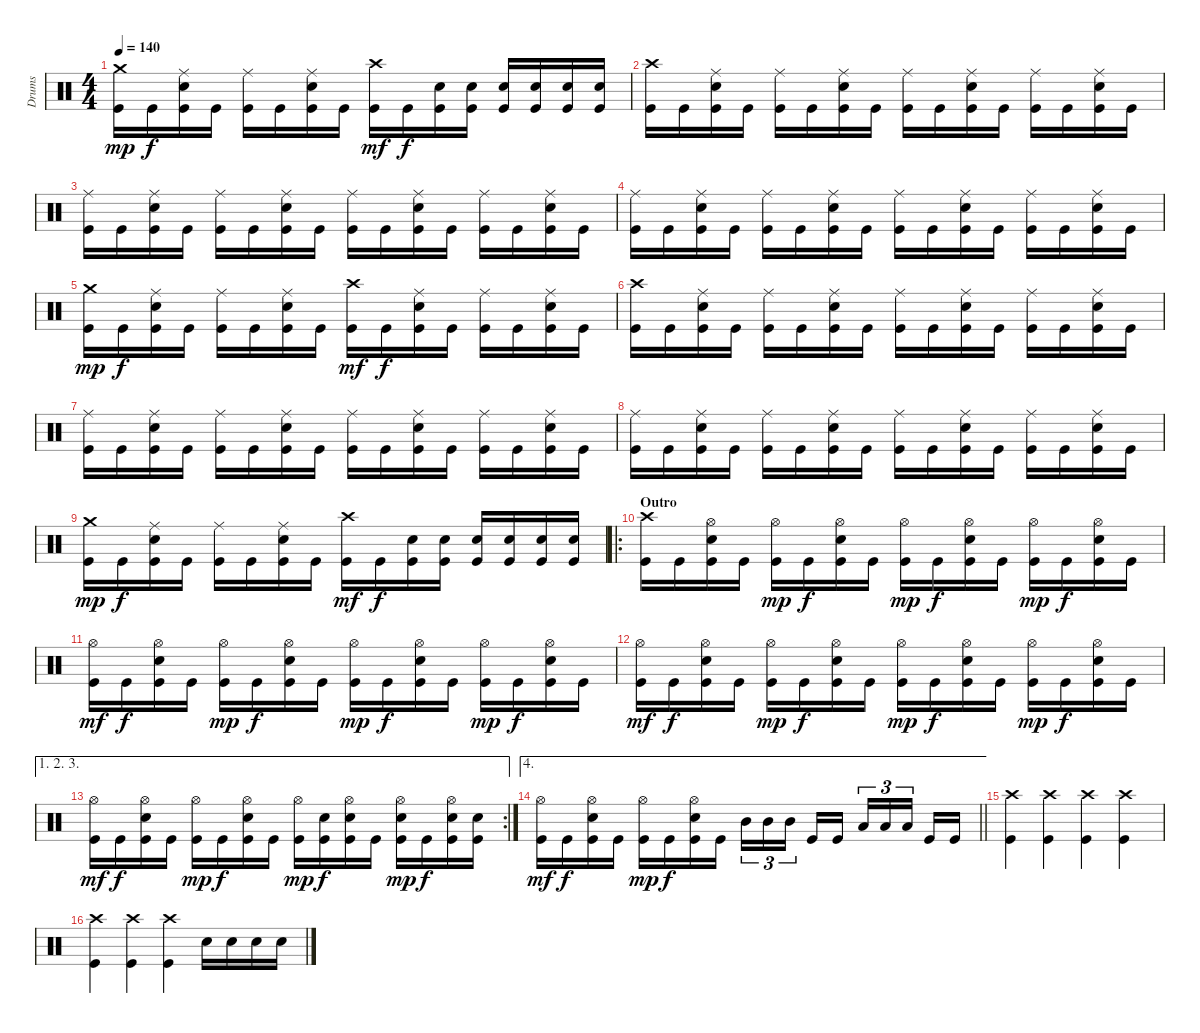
\track ("Drums" "Drums") {instrument percussion}
\staff {score}
\articulation defaults
\ts (4 4)
\tempo 140
\clef neutral
\ks c
("Crash medium (hit)" "Kick (hit)").16{dy mp} "Kick (hit)".16{dy f} ("Ride (middle)" "Electric Snare (hit)" "Kick (hit)").16 "Kick (hit)".16 ("Ride (middle)" "Kick (hit)").16 "Kick (hit)".16 ("Ride (middle)" "Electric Snare (hit)" "Kick (hit)").16 "Kick (hit)".16 ("Crash high (hit)" "Kick (hit)").16{dy mf} "Kick (hit)".16{dy f} ("Electric Snare (hit)" "Kick (hit)").16 ("Electric Snare (hit)" "Kick (hit)").16 ("Electric Snare (hit)" "Kick (hit)").16 ("Electric Snare (hit)" "Kick (hit)").16 ("Electric Snare (hit)" "Kick (hit)").16 ("Electric Snare (hit)" "Kick (hit)").16 |
("Crash high (hit)" "Kick (hit)").16 "Kick (hit)".16 ("Ride (middle)" "Electric Snare (hit)" "Kick (hit)").16 "Kick (hit)".16 ("Ride (middle)" "Kick (hit)").16 "Kick (hit)".16 ("Ride (middle)" "Electric Snare (hit)" "Kick (hit)").16 "Kick (hit)".16 ("Ride (middle)" "Kick (hit)").16 "Kick (hit)".16 ("Ride (middle)" "Electric Snare (hit)" "Kick (hit)").16 "Kick (hit)".16 ("Ride (middle)" "Kick (hit)").16 "Kick (hit)".16 ("Ride (middle)" "Electric Snare (hit)" "Kick (hit)").16 "Kick (hit)".16 |
("Ride (middle)" "Kick (hit)").16 "Kick (hit)".16 ("Ride (middle)" "Electric Snare (hit)" "Kick (hit)").16 "Kick (hit)".16 ("Ride (middle)" "Kick (hit)").16 "Kick (hit)".16 ("Ride (middle)" "Electric Snare (hit)" "Kick (hit)").16 "Kick (hit)".16 ("Ride (middle)" "Kick (hit)").16 "Kick (hit)".16 ("Ride (middle)" "Electric Snare (hit)" "Kick (hit)").16 "Kick (hit)".16 ("Ride (middle)" "Kick (hit)").16 "Kick (hit)".16 ("Ride (middle)" "Electric Snare (hit)" "Kick (hit)").16 "Kick (hit)".16 |
("Ride (middle)" "Kick (hit)").16 "Kick (hit)".16 ("Ride (middle)" "Electric Snare (hit)" "Kick (hit)").16 "Kick (hit)".16 ("Ride (middle)" "Kick (hit)").16 "Kick (hit)".16 ("Ride (middle)" "Electric Snare (hit)" "Kick (hit)").16 "Kick (hit)".16 ("Ride (middle)" "Kick (hit)").16 "Kick (hit)".16 ("Ride (middle)" "Electric Snare (hit)" "Kick (hit)").16 "Kick (hit)".16 ("Ride (middle)" "Kick (hit)").16 "Kick (hit)".16 ("Ride (middle)" "Electric Snare (hit)" "Kick (hit)").16 "Kick (hit)".16 |
("Crash medium (hit)" "Kick (hit)").16{dy mp} "Kick (hit)".16{dy f} ("Ride (middle)" "Electric Snare (hit)" "Kick (hit)").16 "Kick (hit)".16 ("Ride (middle)" "Kick (hit)").16 "Kick (hit)".16 ("Ride (middle)" "Electric Snare (hit)" "Kick (hit)").16 "Kick (hit)".16 ("Crash high (hit)" "Kick (hit)").16{dy mf} "Kick (hit)".16{dy f} ("Ride (middle)" "Electric Snare (hit)" "Kick (hit)").16 "Kick (hit)".16 ("Ride (middle)" "Kick (hit)").16 "Kick (hit)".16 ("Ride (middle)" "Electric Snare (hit)" "Kick (hit)").16 "Kick (hit)".16 |
("Crash high (hit)" "Kick (hit)").16 "Kick (hit)".16 ("Ride (middle)" "Electric Snare (hit)" "Kick (hit)").16 "Kick (hit)".16 ("Ride (middle)" "Kick (hit)").16 "Kick (hit)".16 ("Ride (middle)" "Electric Snare (hit)" "Kick (hit)").16 "Kick (hit)".16 ("Ride (middle)" "Kick (hit)").16 "Kick (hit)".16 ("Ride (middle)" "Electric Snare (hit)" "Kick (hit)").16 "Kick (hit)".16 ("Ride (middle)" "Kick (hit)").16 "Kick (hit)".16 ("Ride (middle)" "Electric Snare (hit)" "Kick (hit)").16 "Kick (hit)".16 |
("Ride (middle)" "Kick (hit)").16 "Kick (hit)".16 ("Ride (middle)" "Electric Snare (hit)" "Kick (hit)").16 "Kick (hit)".16 ("Ride (middle)" "Kick (hit)").16 "Kick (hit)".16 ("Ride (middle)" "Electric Snare (hit)" "Kick (hit)").16 "Kick (hit)".16 ("Ride (middle)" "Kick (hit)").16 "Kick (hit)".16 ("Ride (middle)" "Electric Snare (hit)" "Kick (hit)").16 "Kick (hit)".16 ("Ride (middle)" "Kick (hit)").16 "Kick (hit)".16 ("Ride (middle)" "Electric Snare (hit)" "Kick (hit)").16 "Kick (hit)".16 |
("Ride (middle)" "Kick (hit)").16 "Kick (hit)".16 ("Ride (middle)" "Electric Snare (hit)" "Kick (hit)").16 "Kick (hit)".16 ("Ride (middle)" "Kick (hit)").16 "Kick (hit)".16 ("Ride (middle)" "Electric Snare (hit)" "Kick (hit)").16 "Kick (hit)".16 ("Ride (middle)" "Kick (hit)").16 "Kick (hit)".16 ("Ride (middle)" "Electric Snare (hit)" "Kick (hit)").16 "Kick (hit)".16 ("Ride (middle)" "Kick (hit)").16 "Kick (hit)".16 ("Ride (middle)" "Electric Snare (hit)" "Kick (hit)").16 "Kick (hit)".16 |
("Crash medium (hit)" "Kick (hit)").16{dy mp} "Kick (hit)".16{dy f} ("Ride (middle)" "Electric Snare (hit)" "Kick (hit)").16 "Kick (hit)".16 ("Ride (middle)" "Kick (hit)").16 "Kick (hit)".16 ("Ride (middle)" "Electric Snare (hit)" "Kick (hit)").16 "Kick (hit)".16 ("Crash high (hit)" "Kick (hit)").16{dy mf} "Kick (hit)".16{dy f} ("Electric Snare (hit)" "Kick (hit)").16 ("Electric Snare (hit)" "Kick (hit)").16 ("Electric Snare (hit)" "Kick (hit)").16 ("Electric Snare (hit)" "Kick (hit)").16 ("Electric Snare (hit)" "Kick (hit)").16 ("Electric Snare (hit)" "Kick (hit)").16 |
\ro
\section ("" "Outro")
("Crash high (hit)" "Kick (hit)").16 "Kick (hit)".16 ("Hi-Hat (open)" "Electric Snare (hit)" "Kick (hit)").16 "Kick (hit)".16 ("Hi-Hat (open)" "Kick (hit)").16{dy mp} "Kick (hit)".16{dy f} ("Hi-Hat (open)" "Electric Snare (hit)" "Kick (hit)").16 "Kick (hit)".16 ("Hi-Hat (open)" "Kick (hit)").16{dy mp} "Kick (hit)".16{dy f} ("Hi-Hat (open)" "Electric Snare (hit)" "Kick (hit)").16 "Kick (hit)".16 ("Hi-Hat (open)" "Kick (hit)").16{dy mp} "Kick (hit)".16{dy f} ("Hi-Hat (open)" "Electric Snare (hit)" "Kick (hit)").16 "Kick (hit)".16 |
("Hi-Hat (open)" "Kick (hit)").16{dy mf} "Kick (hit)".16{dy f} ("Hi-Hat (open)" "Electric Snare (hit)" "Kick (hit)").16 "Kick (hit)".16 ("Hi-Hat (open)" "Kick (hit)").16{dy mp} "Kick (hit)".16{dy f} ("Hi-Hat (open)" "Electric Snare (hit)" "Kick (hit)").16 "Kick (hit)".16 ("Hi-Hat (open)" "Kick (hit)").16{dy mp} "Kick (hit)".16{dy f} ("Hi-Hat (open)" "Electric Snare (hit)" "Kick (hit)").16 "Kick (hit)".16 ("Hi-Hat (open)" "Kick (hit)").16{dy mp} "Kick (hit)".16{dy f} ("Hi-Hat (open)" "Electric Snare (hit)" "Kick (hit)").16 "Kick (hit)".16 |
("Hi-Hat (open)" "Kick (hit)").16{dy mf} "Kick (hit)".16{dy f} ("Hi-Hat (open)" "Electric Snare (hit)" "Kick (hit)").16 "Kick (hit)".16 ("Hi-Hat (open)" "Kick (hit)").16{dy mp} "Kick (hit)".16{dy f} ("Hi-Hat (open)" "Electric Snare (hit)" "Kick (hit)").16 "Kick (hit)".16 ("Hi-Hat (open)" "Kick (hit)").16{dy mp} "Kick (hit)".16{dy f} ("Hi-Hat (open)" "Electric Snare (hit)" "Kick (hit)").16 "Kick (hit)".16 ("Hi-Hat (open)" "Kick (hit)").16{dy mp} "Kick (hit)".16{dy f} ("Hi-Hat (open)" "Electric Snare (hit)" "Kick (hit)").16 "Kick (hit)".16 |
\ae (1 2 3)
\rc 2
("Hi-Hat (open)" "Kick (hit)").16{dy mf} "Kick (hit)".16{dy f} ("Hi-Hat (open)" "Electric Snare (hit)" "Kick (hit)").16 "Kick (hit)".16 ("Hi-Hat (open)" "Kick (hit)").16{dy mp} "Kick (hit)".16{dy f} ("Hi-Hat (open)" "Electric Snare (hit)" "Kick (hit)").16 "Kick (hit)".16 ("Hi-Hat (open)" "Kick (hit)").16{dy mp} ("Electric Snare (hit)" "Kick (hit)").16{dy f} ("Hi-Hat (open)" "Electric Snare (hit)" "Kick (hit)").16 "Kick (hit)".16 ("Hi-Hat (open)" "Electric Snare (hit)" "Kick (hit)").16{dy mp} "Kick (hit)".16{dy f} ("Hi-Hat (open)" "Electric Snare (hit)" "Kick (hit)").16 ("Electric Snare (hit)" "Kick (hit)").16 |
\ae 4
\barLineRight lightlight
("Hi-Hat (open)" "Kick (hit)").16{dy mf} "Kick (hit)".16{dy f} ("Hi-Hat (open)" "Electric Snare (hit)" "Kick (hit)").16 "Kick (hit)".16 ("Hi-Hat (open)" "Kick (hit)").16{dy mp} "Kick (hit)".16{dy f} ("Hi-Hat (open)" "Electric Snare (hit)" "Kick (hit)").16 "Kick (hit)".16 "Mid Tom (hit)".16{tu (3 2)} "Mid Tom (hit)".16{tu (3 2)} "Mid Tom (hit)".16{tu (3 2)} "Kick (hit)".16 "Kick (hit)".16 "Low Tom (hit)".16{tu (3 2)} "Low Tom (hit)".16{tu (3 2)} "Low Tom (hit)".16{tu (3 2)} "Kick (hit)".16 "Kick (hit)".16 |
("Crash high (hit)" "Kick (hit)").4 ("Crash high (hit)" "Kick (hit)").4 ("Crash high (hit)" "Kick (hit)").4 ("Crash high (hit)" "Kick (hit)").4 |
("Crash high (hit)" "Kick (hit)").4 ("Crash high (hit)" "Kick (hit)").4 ("Crash high (hit)" "Kick (hit)").4 "Electric Snare (hit)".16 "Electric Snare (hit)".16 "Electric Snare (hit)".16 "Electric Snare (hit)".16
